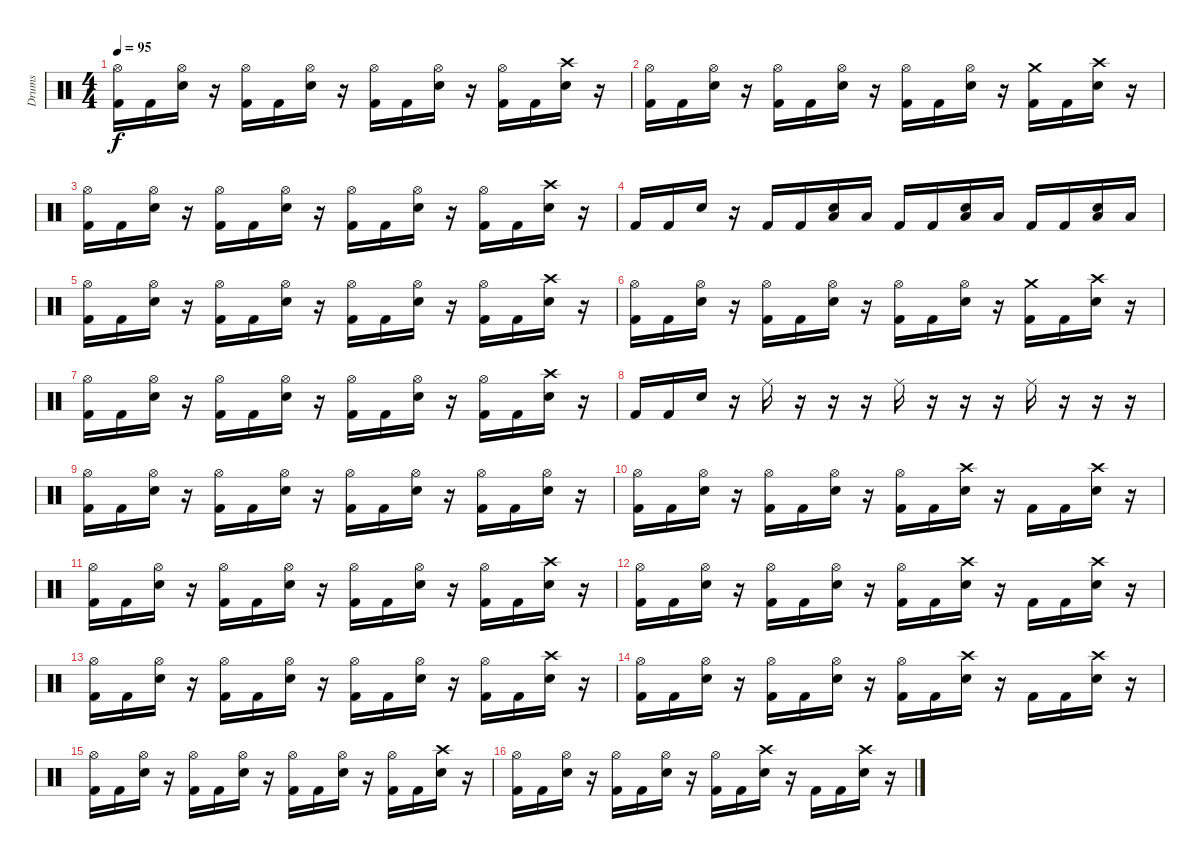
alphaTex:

\track ("Drums" "Drums") {instrument percussion}
\staff {score}
\articulation defaults
\ts (4 4)
\tempo 95
\clef neutral
\ks c
("Kick (hit) 2" "Hi-Hat (open)").16{dy f} "Kick (hit) 2".16 ("Snare (hit) 2" "Hi-Hat (open)").16 r.16 ("Kick (hit) 2" "Hi-Hat (open)").16 "Kick (hit) 2".16 ("Snare (hit) 2" "Hi-Hat (open)").16 r.16 ("Kick (hit) 2" "Hi-Hat (open)").16 "Kick (hit) 2".16 ("Snare (hit) 2" "Hi-Hat (open)").16 r.16 ("Kick (hit) 2" "Hi-Hat (open)").16 "Kick (hit) 2".16 ("Snare (hit) 2" "Crash high (hit)").16 r.16 |
("Kick (hit) 2" "Hi-Hat (open)").16 "Kick (hit) 2".16 ("Snare (hit) 2" "Hi-Hat (open)").16 r.16 ("Kick (hit) 2" "Hi-Hat (open)").16 "Kick (hit) 2".16 ("Snare (hit) 2" "Hi-Hat (open)").16 r.16 ("Kick (hit) 2" "Hi-Hat (open)").16 "Kick (hit) 2".16 ("Snare (hit) 2" "Hi-Hat (open)").16 r.16 ("Kick (hit) 2" "Crash medium (hit)").16 "Kick (hit) 2".16 ("Snare (hit) 2" "Crash high (hit)").16 r.16 |
("Kick (hit) 2" "Hi-Hat (open)").16 "Kick (hit) 2".16 ("Snare (hit) 2" "Hi-Hat (open)").16 r.16 ("Kick (hit) 2" "Hi-Hat (open)").16 "Kick (hit) 2".16 ("Snare (hit) 2" "Hi-Hat (open)").16 r.16 ("Kick (hit) 2" "Hi-Hat (open)").16 "Kick (hit) 2".16 ("Snare (hit) 2" "Hi-Hat (open)").16 r.16 ("Kick (hit) 2" "Hi-Hat (open)").16 "Kick (hit) 2".16 ("Snare (hit) 2" "Crash high (hit)").16 r.16 |
"Kick (hit) 2".16 "Kick (hit) 2".16 "Snare (hit) 2".16 r.16 "Kick (hit) 2".16 "Kick (hit) 2".16 ("Snare (hit) 2" "Low Tom (hit)").16 "Low Tom (hit)".16 "Kick (hit) 2".16 "Kick (hit) 2".16 ("Snare (hit) 2" "Low Tom (hit)").16 "Low Tom (hit)".16 "Kick (hit) 2".16 "Kick (hit) 2".16 ("Snare (hit) 2" "Low Tom (hit)").16 "Low Tom (hit)".16 |
("Kick (hit) 2" "Hi-Hat (open)").16 "Kick (hit) 2".16 ("Snare (hit) 2" "Hi-Hat (open)").16 r.16 ("Kick (hit) 2" "Hi-Hat (open)").16 "Kick (hit) 2".16 ("Snare (hit) 2" "Hi-Hat (open)").16 r.16 ("Kick (hit) 2" "Hi-Hat (open)").16 "Kick (hit) 2".16 ("Snare (hit) 2" "Hi-Hat (open)").16 r.16 ("Kick (hit) 2" "Hi-Hat (open)").16 "Kick (hit) 2".16 ("Snare (hit) 2" "Crash high (hit)").16 r.16 |
("Kick (hit) 2" "Hi-Hat (open)").16 "Kick (hit) 2".16 ("Snare (hit) 2" "Hi-Hat (open)").16 r.16 ("Kick (hit) 2" "Hi-Hat (open)").16 "Kick (hit) 2".16 ("Snare (hit) 2" "Hi-Hat (open)").16 r.16 ("Kick (hit) 2" "Hi-Hat (open)").16 "Kick (hit) 2".16 ("Snare (hit) 2" "Hi-Hat (open)").16 r.16 ("Kick (hit) 2" "Crash medium (hit)").16 "Kick (hit) 2".16 ("Snare (hit) 2" "Crash high (hit)").16 r.16 |
("Kick (hit) 2" "Hi-Hat (open)").16 "Kick (hit) 2".16 ("Snare (hit) 2" "Hi-Hat (open)").16 r.16 ("Kick (hit) 2" "Hi-Hat (open)").16 "Kick (hit) 2".16 ("Snare (hit) 2" "Hi-Hat (open)").16 r.16 ("Kick (hit) 2" "Hi-Hat (open)").16 "Kick (hit) 2".16 ("Snare (hit) 2" "Hi-Hat (open)").16 r.16 ("Kick (hit) 2" "Hi-Hat (open)").16 "Kick (hit) 2".16 ("Snare (hit) 2" "Crash high (hit)").16 r.16 |
"Kick (hit) 2".16 "Kick (hit) 2".16 "Snare (hit) 2".16 r.16 "Ride (middle)".16 r.16 r.16 r.16 "Ride (middle)".16 r.16 r.16 r.16 "Ride (middle)".16 r.16 r.16 r.16 |
("Kick (hit) 2" "Hi-Hat (open)").16 "Kick (hit) 2".16 ("Snare (hit) 2" "Hi-Hat (open)").16 r.16 ("Kick (hit) 2" "Hi-Hat (open)").16 "Kick (hit) 2".16 ("Snare (hit) 2" "Hi-Hat (open)").16 r.16 ("Kick (hit) 2" "Hi-Hat (open)").16 "Kick (hit) 2".16 ("Snare (hit) 2" "Hi-Hat (open)").16 r.16 ("Kick (hit) 2" "Hi-Hat (open)").16 "Kick (hit) 2".16 ("Snare (hit) 2" "Hi-Hat (open)").16 r.16 |
("Kick (hit) 2" "Hi-Hat (open)").16 "Kick (hit) 2".16 ("Snare (hit) 2" "Hi-Hat (open)").16 r.16 ("Kick (hit) 2" "Hi-Hat (open)").16 "Kick (hit) 2".16 ("Snare (hit) 2" "Hi-Hat (open)").16 r.16 ("Kick (hit) 2" "Hi-Hat (open)").16 "Kick (hit) 2".16 ("Snare (hit) 2" "Crash high (hit)").16 r.16 "Kick (hit) 2".16 "Kick (hit) 2".16 ("Snare (hit) 2" "Crash high (hit)").16 r.16 |
("Kick (hit) 2" "Hi-Hat (open)").16 "Kick (hit) 2".16 ("Snare (hit) 2" "Hi-Hat (open)").16 r.16 ("Kick (hit) 2" "Hi-Hat (open)").16 "Kick (hit) 2".16 ("Snare (hit) 2" "Hi-Hat (open)").16 r.16 ("Kick (hit) 2" "Hi-Hat (open)").16 "Kick (hit) 2".16 ("Snare (hit) 2" "Hi-Hat (open)").16 r.16 ("Kick (hit) 2" "Hi-Hat (open)").16 "Kick (hit) 2".16 ("Snare (hit) 2" "Crash high (hit)").16 r.16 |
("Kick (hit) 2" "Hi-Hat (open)").16 "Kick (hit) 2".16 ("Snare (hit) 2" "Hi-Hat (open)").16 r.16 ("Kick (hit) 2" "Hi-Hat (open)").16 "Kick (hit) 2".16 ("Snare (hit) 2" "Hi-Hat (open)").16 r.16 ("Kick (hit) 2" "Hi-Hat (open)").16 "Kick (hit) 2".16 ("Snare (hit) 2" "Crash high (hit)").16 r.16 "Kick (hit) 2".16 "Kick (hit) 2".16 ("Snare (hit) 2" "Crash high (hit)").16 r.16 |
("Kick (hit) 2" "Hi-Hat (open)").16 "Kick (hit) 2".16 ("Snare (hit) 2" "Hi-Hat (open)").16 r.16 ("Kick (hit) 2" "Hi-Hat (open)").16 "Kick (hit) 2".16 ("Snare (hit) 2" "Hi-Hat (open)").16 r.16 ("Kick (hit) 2" "Hi-Hat (open)").16 "Kick (hit) 2".16 ("Snare (hit) 2" "Hi-Hat (open)").16 r.16 ("Kick (hit) 2" "Hi-Hat (open)").16 "Kick (hit) 2".16 ("Snare (hit) 2" "Crash high (hit)").16 r.16 |
("Kick (hit) 2" "Hi-Hat (open)").16 "Kick (hit) 2".16 ("Snare (hit) 2" "Hi-Hat (open)").16 r.16 ("Kick (hit) 2" "Hi-Hat (open)").16 "Kick (hit) 2".16 ("Snare (hit) 2" "Hi-Hat (open)").16 r.16 ("Kick (hit) 2" "Hi-Hat (open)").16 "Kick (hit) 2".16 ("Snare (hit) 2" "Crash high (hit)").16 r.16 "Kick (hit) 2".16 "Kick (hit) 2".16 ("Snare (hit) 2" "Crash high (hit)").16 r.16 |
("Kick (hit) 2" "Hi-Hat (open)").16 "Kick (hit) 2".16 ("Snare (hit) 2" "Hi-Hat (open)").16 r.16 ("Kick (hit) 2" "Hi-Hat (open)").16 "Kick (hit) 2".16 ("Snare (hit) 2" "Hi-Hat (open)").16 r.16 ("Kick (hit) 2" "Hi-Hat (open)").16 "Kick (hit) 2".16 ("Snare (hit) 2" "Hi-Hat (open)").16 r.16 ("Kick (hit) 2" "Hi-Hat (open)").16 "Kick (hit) 2".16 ("Snare (hit) 2" "Crash high (hit)").16 r.16 |
("Kick (hit) 2" "Hi-Hat (open)").16 "Kick (hit) 2".16 ("Snare (hit) 2" "Hi-Hat (open)").16 r.16 ("Kick (hit) 2" "Hi-Hat (open)").16 "Kick (hit) 2".16 ("Snare (hit) 2" "Hi-Hat (open)").16 r.16 ("Kick (hit) 2" "Hi-Hat (open)").16 "Kick (hit) 2".16 ("Snare (hit) 2" "Crash high (hit)").16 r.16 "Kick (hit) 2".16 "Kick (hit) 2".16 ("Snare (hit) 2" "Crash high (hit)").16 r.16
